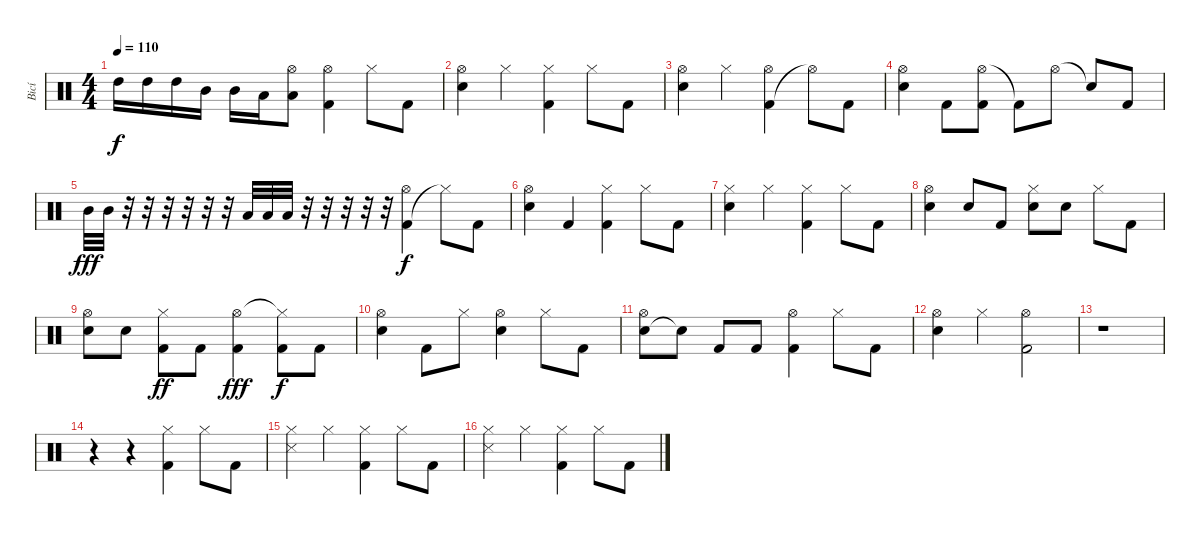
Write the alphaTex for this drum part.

\track ("Bicí" "Bicí") {instrument percussion}
\staff {score}
\articulation defaults
\ts (4 4)
\tempo 110
\clef neutral
\ks c "High Tom (hit)".16{dy f} "High Tom (hit)".16 "High Tom (hit)".16 "Mid Tom (hit)".16 "Mid Tom (hit)".16 "Low Tom (hit)".16
("Low Tom (hit)" "Hi-Hat (open)").8 ("Kick (hit) 2" "Hi-Hat (open)").4 "Hi-Hat (closed)".8 "Kick (hit) 2".8 |
("Snare (hit) 2" "Hi-Hat (open)").4 "Hi-Hat (closed)".4 ("Kick (hit) 2" "Hi-Hat (closed)").4 "Hi-Hat (closed)".8 "Kick (hit) 2".8 |
("Snare (hit) 2" "Hi-Hat (open)").4 "Hi-Hat (closed)".4 ("Kick (hit) 2" "Hi-Hat (open)").4 "Hi-Hat (open)"{t}.8 "Kick (hit) 2".8 |
("Snare (hit) 2" "Hi-Hat (open)").4 "Kick (hit) 2".8 ("Hi-Hat (open)" "Kick (hit) 2").8 "Kick (hit) 2"{t}.8 "Hi-Hat (open)".8 "Snare (hit)"{t}.8 "Kick (hit) 2".8 |
"Mid Tom (hit)".32{dy fff} "Mid Tom (hit)".32 r.32 r.32 r.32 r.32 r.32 r.32 "Low Tom (hit)".32 "Low Tom (hit)".32 "Low Tom (hit)".32 r.32 r.32 r.32 r.32 r.32 ("Kick (hit) 2" "Hi-Hat (open)").4{dy f} "Hi-Hat (closed)"{t}.8 "Kick (hit) 2".8 |
("Snare (hit) 2" "Hi-Hat (open)").4 "Kick (hit) 2".4 ("Kick (hit) 2" "Hi-Hat (closed)").4 "Hi-Hat (closed)".8 "Kick (hit) 2".8 |
("Snare (hit) 2" "Hi-Hat (closed)").4 "Hi-Hat (closed)".4 ("Kick (hit) 2" "Hi-Hat (closed)").4 "Hi-Hat (closed)".8 "Kick (hit) 2".8 |
("Snare (hit) 2" "Hi-Hat (open)").4 "Snare (hit) 2".8 "Kick (hit) 2".8 ("Snare (hit) 2" "Hi-Hat (closed)").8 "Snare (hit) 2".8 "Hi-Hat (closed)".8 "Kick (hit) 2".8 |
("Snare (hit) 2" "Hi-Hat (open)").8 "Snare (hit) 2".8 ("Kick (hit) 2" "Hi-Hat (closed)").8{dy ff} "Kick (hit) 2".8 ("Kick (hit) 2" "Hi-Hat (open)").4{dy fff} ("Kick (hit) 2" "Hi-Hat (closed)"{t}).8{dy f} "Kick (hit) 2".8 |
("Snare (hit) 2" "Hi-Hat (open)").4 "Kick (hit) 2".8 "Hi-Hat (closed)".8 ("Snare (hit) 2" "Hi-Hat (open)").4 "Hi-Hat (closed)".8 "Kick (hit) 2".8 |
("Snare (hit) 2" "Hi-Hat (open)").8 "Snare (hit)"{t}.8 "Kick (hit) 2".8 "Kick (hit) 2".8 ("Kick (hit) 2" "Hi-Hat (open)").4 "Hi-Hat (closed)".8 "Kick (hit) 2".8 |
("Snare (hit) 2" "Hi-Hat (open)").4 "Hi-Hat (closed)".4 ("Kick (hit) 2" "Hi-Hat (open)").2 |
r.1 |
r.4 r.4 ("Kick (hit) 2" "Hi-Hat (closed)").4{volume 10} "Hi-Hat (closed)".8 "Kick (hit) 2".8 |
("Snare (side stick) 3" "Hi-Hat (closed)").4 "Hi-Hat (closed)".4 ("Kick (hit) 2" "Hi-Hat (closed)").4 "Hi-Hat (closed)".8 "Kick (hit) 2".8 |
("Snare (side stick) 3" "Hi-Hat (closed)").4 "Hi-Hat (closed)".4 ("Kick (hit) 2" "Hi-Hat (closed)").4 "Hi-Hat (closed)".8 "Kick (hit) 2".8
